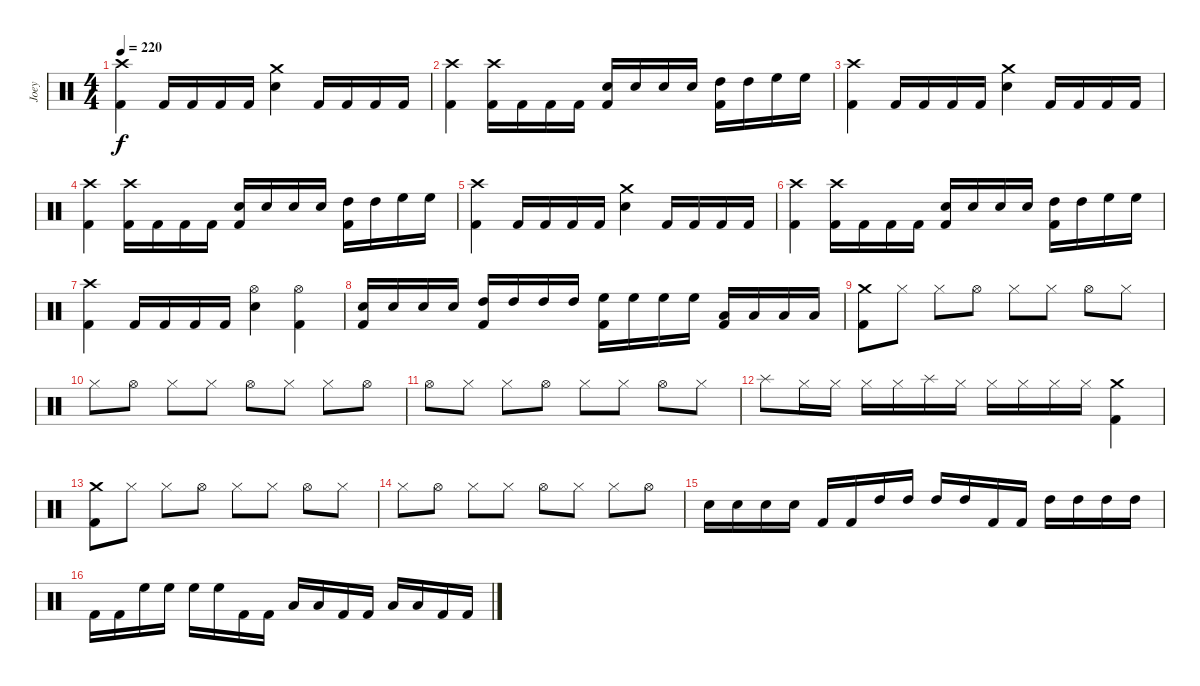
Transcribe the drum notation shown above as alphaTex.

\track ("Joey" "Joey") {instrument percussion}
\staff {score}
\articulation defaults
\ts (4 4)
\tempo 220
\clef neutral
\ks c
("Crash high (hit)" "Kick (hit) 2").4{dy f} "Kick (hit) 2".16 "Kick (hit) 2".16 "Kick (hit) 2".16 "Kick (hit) 2".16 ("Crash medium (hit)" "Electric Snare (hit)").4 "Kick (hit) 2".16 "Kick (hit) 2".16 "Kick (hit) 2".16 "Kick (hit) 2".16 |
("Crash high (hit)" "Kick (hit) 2").4 ("Crash high (hit)" "Kick (hit) 2").16 "Kick (hit) 2".16 "Kick (hit) 2".16 "Kick (hit) 2".16 ("Electric Snare (hit)" "Kick (hit) 2").16 "Electric Snare (hit)".16 "Electric Snare (hit)".16 "Electric Snare (hit)".16 ("High Tom (hit)" "Kick (hit) 2").16 "High Tom (hit)".16 "High Floor Tom (hit)".16 "High Floor Tom (hit)".16 |
("Crash high (hit)" "Kick (hit) 2").4 "Kick (hit) 2".16 "Kick (hit) 2".16 "Kick (hit) 2".16 "Kick (hit) 2".16 ("Crash medium (hit)" "Electric Snare (hit)").4 "Kick (hit) 2".16 "Kick (hit) 2".16 "Kick (hit) 2".16 "Kick (hit) 2".16 |
("Crash high (hit)" "Kick (hit) 2").4 ("Crash high (hit)" "Kick (hit) 2").16 "Kick (hit) 2".16 "Kick (hit) 2".16 "Kick (hit) 2".16 ("Electric Snare (hit)" "Kick (hit) 2").16 "Electric Snare (hit)".16 "Electric Snare (hit)".16 "Electric Snare (hit)".16 ("High Tom (hit)" "Kick (hit) 2").16 "High Tom (hit)".16 "High Floor Tom (hit)".16 "High Floor Tom (hit)".16 |
("Crash high (hit)" "Kick (hit) 2").4 "Kick (hit) 2".16 "Kick (hit) 2".16 "Kick (hit) 2".16 "Kick (hit) 2".16 ("Crash medium (hit)" "Electric Snare (hit)").4 "Kick (hit) 2".16 "Kick (hit) 2".16 "Kick (hit) 2".16 "Kick (hit) 2".16 |
("Crash high (hit)" "Kick (hit) 2").4 ("Crash high (hit)" "Kick (hit) 2").16 "Kick (hit) 2".16 "Kick (hit) 2".16 "Kick (hit) 2".16 ("Electric Snare (hit)" "Kick (hit) 2").16 "Electric Snare (hit)".16 "Electric Snare (hit)".16 "Electric Snare (hit)".16 ("High Tom (hit)" "Kick (hit) 2").16 "High Tom (hit)".16 "High Floor Tom (hit)".16 "High Floor Tom (hit)".16 |
("Crash high (hit)" "Kick (hit) 2").4 "Kick (hit) 2".16 "Kick (hit) 2".16 "Kick (hit) 2".16 "Kick (hit) 2".16 ("Hi-Hat (open)" "Electric Snare (hit)").4 ("Hi-Hat (open)" "Kick (hit) 2").4 |
("Electric Snare (hit)" "Kick (hit) 2").16 "Electric Snare (hit)".16 "Electric Snare (hit)".16 "Electric Snare (hit)".16 ("High Tom (hit)" "Kick (hit) 2").16 "High Tom (hit)".16 "High Tom (hit)".16 "High Tom (hit)".16 ("High Floor Tom (hit)" "Kick (hit) 2").16 "High Floor Tom (hit)".16 "High Floor Tom (hit)".16 "High Floor Tom (hit)".16 ("Low Floor Tom (hit)" "Kick (hit) 2").16 "Low Floor Tom (hit)".16 "Low Floor Tom (hit)".16 "Low Floor Tom (hit)".16 |
("Crash medium (hit)" "Kick (hit) 2").8 "Hi-Hat (closed)".8 "Hi-Hat (closed)".8 "Hi-Hat (open)".8 "Hi-Hat (closed)".8 "Hi-Hat (closed)".8 "Hi-Hat (open)".8 "Hi-Hat (closed)".8 |
"Hi-Hat (closed)".8 "Hi-Hat (open)".8 "Hi-Hat (closed)".8 "Hi-Hat (closed)".8 "Hi-Hat (open)".8 "Hi-Hat (closed)".8 "Hi-Hat (closed)".8 "Hi-Hat (open)".8 |
"Hi-Hat (open)".8 "Hi-Hat (closed)".8 "Hi-Hat (closed)".8 "Hi-Hat (open)".8 "Hi-Hat (closed)".8 "Hi-Hat (closed)".8 "Hi-Hat (open)".8 "Hi-Hat (closed)".8 |
"Splash (hit)".8 "Hi-Hat (closed)".16 "Hi-Hat (closed)".16 "Hi-Hat (closed)".16 "Hi-Hat (closed)".16 "Splash (hit)".16 "Hi-Hat (closed)".16 "Hi-Hat (closed)".16 "Hi-Hat (closed)".16 "Hi-Hat (closed)".16 "Hi-Hat (closed)".16 ("Crash medium (hit)" "Kick (hit) 2").4 |
("Crash medium (hit)" "Kick (hit) 2").8 "Hi-Hat (closed)".8 "Hi-Hat (closed)".8 "Hi-Hat (open)".8 "Hi-Hat (closed)".8 "Hi-Hat (closed)".8 "Hi-Hat (open)".8 "Hi-Hat (closed)".8 |
"Hi-Hat (closed)".8 "Hi-Hat (open)".8 "Hi-Hat (closed)".8 "Hi-Hat (closed)".8 "Hi-Hat (open)".8 "Hi-Hat (closed)".8 "Hi-Hat (closed)".8 "Hi-Hat (open)".8 |
"Electric Snare (hit)".16 "Electric Snare (hit)".16 "Electric Snare (hit)".16 "Electric Snare (hit)".16 "Kick (hit) 2".16 "Kick (hit) 2".16 "High Tom (hit)".16 "High Tom (hit)".16 "High Tom (hit)".16 "High Tom (hit)".16 "Kick (hit) 2".16 "Kick (hit) 2".16 "High Tom (hit)".16 "High Tom (hit)".16 "High Tom (hit)".16 "High Tom (hit)".16 |
"Kick (hit) 2".16 "Kick (hit) 2".16 "High Floor Tom (hit)".16 "High Floor Tom (hit)".16 "High Floor Tom (hit)".16 "High Floor Tom (hit)".16 "Kick (hit) 2".16 "Kick (hit) 2".16 "Low Floor Tom (hit)".16 "Low Floor Tom (hit)".16 "Kick (hit) 2".16 "Kick (hit) 2".16 "Low Floor Tom (hit)".16 "Low Floor Tom (hit)".16 "Kick (hit) 2".16 "Kick (hit) 2".16
